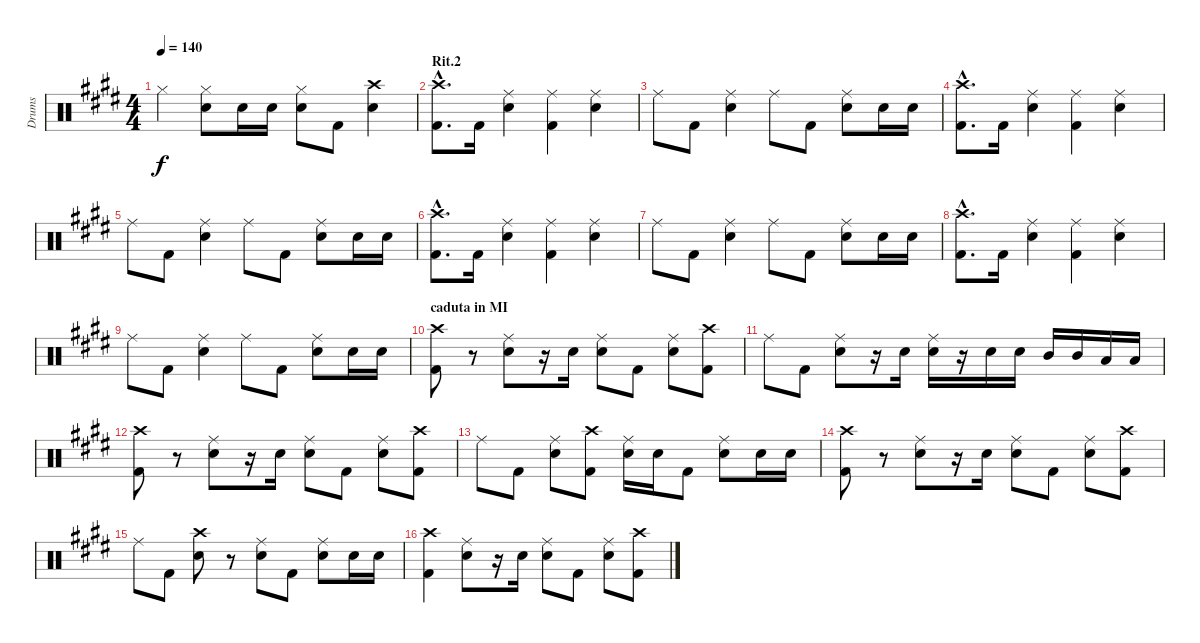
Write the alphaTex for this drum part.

\track ("Drums" "Drums") {instrument percussion}
\staff {score}
\articulation defaults
\ts (4 4)
\tempo 140
\clef neutral
\ks c#minor "Hi-Hat (closed)".4{dy f}
("Hi-Hat (closed)" "Snare (hit) 2").8 "Snare (hit) 2".16 "Snare (hit) 2".16 ("Hi-Hat (closed)" "Snare (hit) 2").8 "Kick (hit) 2".8 ("Crash high (hit)" "Snare (hit) 2").4 |
\section ("" "Rit.2")
("Crash high (hit)" "Kick (hit) 2"{hac}).8{d} "Kick (hit) 2".16 ("Ride (middle)" "Snare (hit) 2").4 ("Ride (middle)" "Kick (hit) 2").4 ("Ride (middle)" "Snare (hit) 2").4 |
"Ride (middle)".8 "Kick (hit) 2".8 ("Ride (middle)" "Snare (hit) 2").4 "Ride (middle)".8 "Kick (hit) 2".8 ("Ride (middle)" "Snare (hit) 2").8 "Snare (hit) 2".16 "Snare (hit) 2".16 |
("Crash high (hit)" "Kick (hit) 2"{hac}).8{d} "Kick (hit) 2".16 ("Ride (middle)" "Snare (hit) 2").4 ("Ride (middle)" "Kick (hit) 2").4 ("Ride (middle)" "Snare (hit) 2").4 |
"Ride (middle)".8 "Kick (hit) 2".8 ("Ride (middle)" "Snare (hit) 2").4 "Ride (middle)".8 "Kick (hit) 2".8 ("Ride (middle)" "Snare (hit) 2").8 "Snare (hit) 2".16 "Snare (hit) 2".16 |
("Crash high (hit)"{hac} "Kick (hit) 2"{hac}).8{d} "Kick (hit) 2".16 ("Ride (middle)" "Snare (hit) 2").4 ("Ride (middle)" "Kick (hit) 2").4 ("Ride (middle)" "Snare (hit) 2").4 |
"Ride (middle)".8 "Kick (hit) 2".8 ("Ride (middle)" "Snare (hit) 2").4 "Ride (middle)".8 "Kick (hit) 2".8 ("Ride (middle)" "Snare (hit) 2").8 "Snare (hit) 2".16 "Snare (hit) 2".16 |
("Crash high (hit)" "Kick (hit) 2"{hac}).8{d} "Kick (hit) 2".16 ("Ride (middle)" "Snare (hit) 2").4 ("Ride (middle)" "Kick (hit) 2").4 ("Ride (middle)" "Snare (hit) 2").4 |
"Ride (middle)".8 "Kick (hit) 2".8 ("Ride (middle)" "Snare (hit) 2").4 "Ride (middle)".8 "Kick (hit) 2".8 ("Ride (middle)" "Snare (hit) 2").8 "Snare (hit) 2".16 "Snare (hit) 2".16 |
\section ("" "caduta in MI")
("Crash high (hit)" "Kick (hit) 2").8 r.8 ("Ride (middle)" "Snare (hit) 2").8 r.16 "Snare (hit) 2".16 ("Ride (middle)" "Snare (hit) 2").8 "Kick (hit) 2".8 ("Ride (middle)" "Snare (hit) 2").8 ("Crash high (hit)" "Kick (hit) 2").8 |
"Ride (middle)".8 "Kick (hit) 2".8 ("Ride (middle)" "Snare (hit) 2").8 r.16 "Snare (hit) 2".16 ("Ride (middle)" "Snare (hit) 2").16 r.16 "Snare (hit) 2".16 "Snare (hit) 2".16 "Mid Tom (hit)".16 "Mid Tom (hit)".16 "Low Tom (hit)".16 "Low Tom (hit)".16 |
("Crash high (hit)" "Kick (hit) 2").8 r.8 ("Ride (middle)" "Snare (hit) 2").8 r.16 "Snare (hit) 2".16 ("Ride (middle)" "Snare (hit) 2").8 "Kick (hit) 2".8 ("Ride (middle)" "Snare (hit) 2").8 ("Crash high (hit)" "Kick (hit) 2").8 |
"Ride (middle)".8 "Kick (hit) 2".8 ("Ride (middle)" "Snare (hit) 2").8 ("Crash high (hit)" "Kick (hit) 2").8 ("Ride (middle)" "Snare (hit) 2").16 "Snare (hit) 2".16 "Kick (hit) 2".8 ("Ride (middle)" "Snare (hit) 2").8 "Snare (hit) 2".16 "Snare (hit) 2".16 |
("Crash high (hit)" "Kick (hit) 2").8 r.8 ("Ride (middle)" "Snare (hit) 2").8 r.16 "Snare (hit) 2".16 ("Ride (middle)" "Snare (hit) 2").8 "Kick (hit) 2".8 ("Ride (middle)" "Snare (hit) 2").8 ("Crash high (hit)" "Kick (hit) 2").8 |
"Ride (middle)".8 "Kick (hit) 2".8 ("Crash high (hit)" "Snare (hit) 2").8 r.8 ("Ride (middle)" "Snare (hit) 2").8 "Kick (hit) 2".8 ("Ride (middle)" "Snare (hit) 2").8 "Snare (hit) 2".16 "Snare (hit) 2".16 |
("Crash high (hit)" "Kick (hit) 2").4 ("Ride (middle)" "Snare (hit) 2").8 r.16 "Snare (hit) 2".16 ("Ride (middle)" "Snare (hit) 2").8 "Kick (hit) 2".8 ("Ride (middle)" "Snare (hit) 2").8 ("Crash high (hit)" "Kick (hit) 2").8
